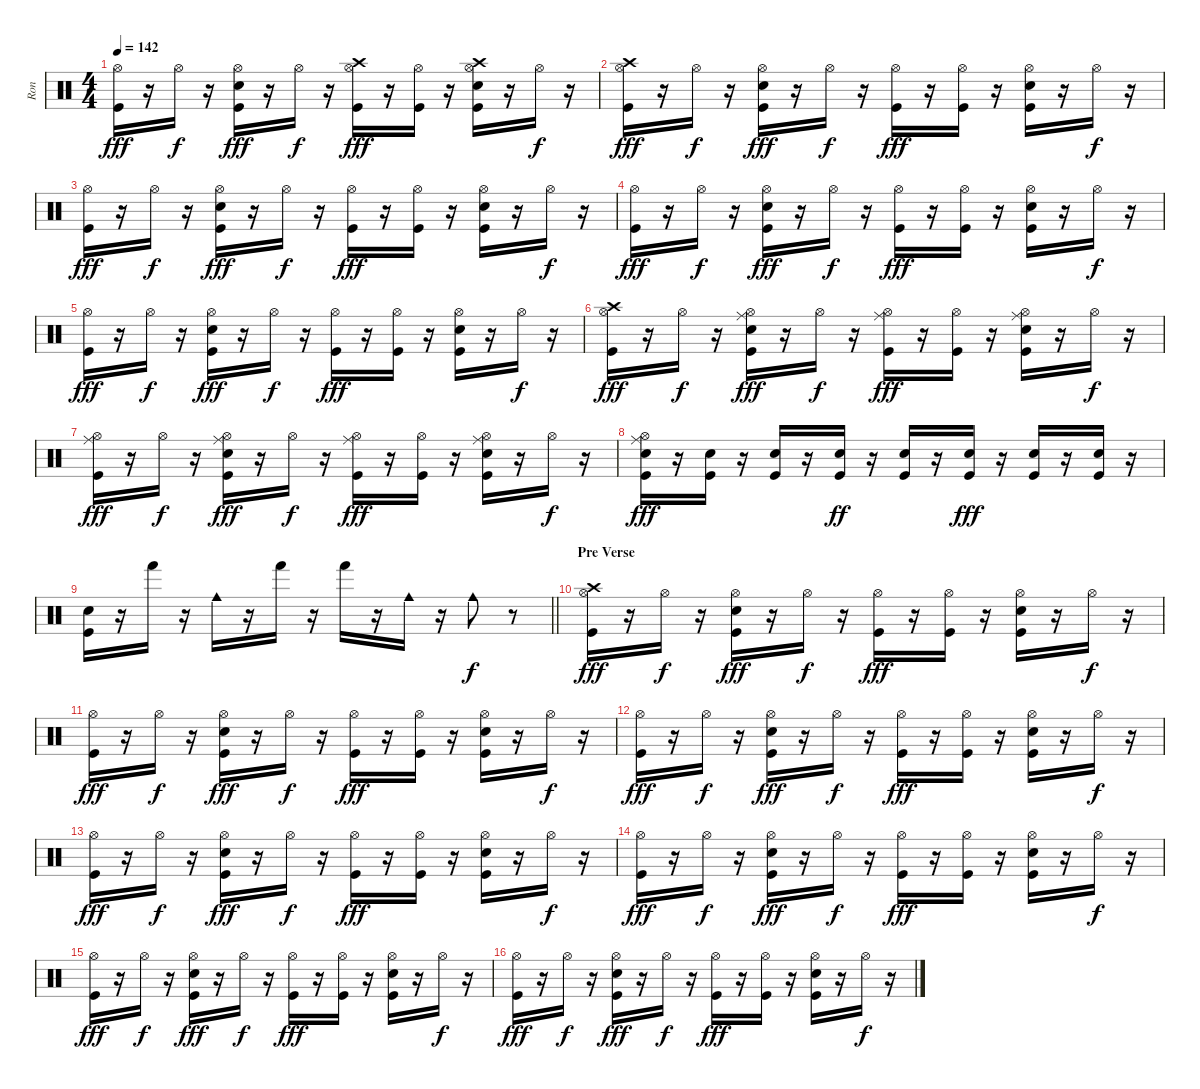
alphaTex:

\track ("Ron" "Ron") {instrument percussion}
\staff {score}
\articulation defaults
\ts (4 4)
\tempo 142
\clef neutral
\ks c
("Hi-Hat (open)" "Kick (hit)").16{dy fff} r.16 "Hi-Hat (open)".16{dy f} r.16 ("Snare (hit) 2" "Kick (hit)" "Hi-Hat (open)").16{dy fff} r.16 "Hi-Hat (open)".16{dy f} r.16 ("Kick (hit)" "Hi-Hat (open)" "Crash high (hit)").16{dy fff} r.16 ("Kick (hit)" "Hi-Hat (open)").16 r.16 ("Kick (hit)" "Snare (hit) 2" "Hi-Hat (open)" "Crash high (hit)").16 r.16 "Hi-Hat (open)".16{dy f} r.16 |
("Hi-Hat (open)" "Kick (hit)" "Crash high (hit)").16{dy fff} r.16 "Hi-Hat (open)".16{dy f} r.16 ("Snare (hit) 2" "Kick (hit)" "Hi-Hat (open)").16{dy fff} r.16 "Hi-Hat (open)".16{dy f} r.16 ("Kick (hit)" "Hi-Hat (open)").16{dy fff} r.16 ("Kick (hit)" "Hi-Hat (open)").16 r.16 ("Kick (hit)" "Snare (hit) 2" "Hi-Hat (open)").16 r.16 "Hi-Hat (open)".16{dy f} r.16 |
("Hi-Hat (open)" "Kick (hit)").16{dy fff} r.16 "Hi-Hat (open)".16{dy f} r.16 ("Snare (hit) 2" "Kick (hit)" "Hi-Hat (open)").16{dy fff} r.16 "Hi-Hat (open)".16{dy f} r.16 ("Kick (hit)" "Hi-Hat (open)").16{dy fff} r.16 ("Kick (hit)" "Hi-Hat (open)").16 r.16 ("Kick (hit)" "Snare (hit) 2" "Hi-Hat (open)").16 r.16 "Hi-Hat (open)".16{dy f} r.16 |
("Hi-Hat (open)" "Kick (hit)").16{dy fff} r.16 "Hi-Hat (open)".16{dy f} r.16 ("Snare (hit) 2" "Kick (hit)" "Hi-Hat (open)").16{dy fff} r.16 "Hi-Hat (open)".16{dy f} r.16 ("Kick (hit)" "Hi-Hat (open)").16{dy fff} r.16 ("Kick (hit)" "Hi-Hat (open)").16 r.16 ("Kick (hit)" "Snare (hit) 2" "Hi-Hat (open)").16 r.16 "Hi-Hat (open)".16{dy f} r.16 |
("Hi-Hat (open)" "Kick (hit)").16{dy fff} r.16 "Hi-Hat (open)".16{dy f} r.16 ("Snare (hit) 2" "Kick (hit)" "Hi-Hat (open)").16{dy fff} r.16 "Hi-Hat (open)".16{dy f} r.16 ("Kick (hit)" "Hi-Hat (open)").16{dy fff} r.16 ("Kick (hit)" "Hi-Hat (open)").16 r.16 ("Kick (hit)" "Snare (hit) 2" "Hi-Hat (open)").16 r.16 "Hi-Hat (open)".16{dy f} r.16 |
("Hi-Hat (open)" "Kick (hit)" "Crash high (hit)").16{dy fff} r.16 "Hi-Hat (open)".16{dy f} r.16 ("Snare (hit) 2" "Kick (hit)" "Hi-Hat (open)" "Ride (middle)").16{dy fff} r.16 "Hi-Hat (open)".16{dy f} r.16 ("Kick (hit)" "Hi-Hat (open)" "Ride (middle)").16{dy fff} r.16 ("Kick (hit)" "Hi-Hat (open)").16 r.16 ("Kick (hit)" "Snare (hit) 2" "Hi-Hat (open)" "Ride (middle)").16 r.16 "Hi-Hat (open)".16{dy f} r.16 |
("Hi-Hat (open)" "Kick (hit)" "Ride (middle)").16{dy fff} r.16 "Hi-Hat (open)".16{dy f} r.16 ("Snare (hit) 2" "Kick (hit)" "Hi-Hat (open)" "Ride (middle)").16{dy fff} r.16 "Hi-Hat (open)".16{dy f} r.16 ("Kick (hit)" "Hi-Hat (open)" "Ride (middle)").16{dy fff} r.16 ("Kick (hit)" "Hi-Hat (open)").16 r.16 ("Kick (hit)" "Snare (hit) 2" "Hi-Hat (open)" "Ride (middle)").16 r.16 "Hi-Hat (open)".16{dy f} r.16 |
("Hi-Hat (open)" "Kick (hit)" "Snare (hit) 2" "Ride (middle)").16{dy fff} r.16 ("Kick (hit)" "Snare (hit) 2").16 r.16 ("Kick (hit)" "Snare (hit) 2").16 r.16 ("Kick (hit)" "Snare (hit) 2").16{dy ff} r.16 ("Kick (hit)" "Snare (hit) 2").16 r.16 ("Kick (hit)" "Snare (hit) 2").16{dy fff} r.16 ("Kick (hit)" "Snare (hit) 2").16 r.16 ("Kick (hit)" "Snare (hit) 2").16 r.16 |
\barLineRight lightlight
("Kick (hit)" "Snare (hit) 2").16 r.16 "Hand (hit)".16 r.16 "Cowbell medium (hit)".16 r.16 "Hand (hit)".16 r.16 "Hand (hit)".16 r.16 "Cowbell medium (hit)".16 r.16 "Cowbell medium (hit)".8{dy f} r.8 |
\section ("" "Pre Verse ")
("Kick (hit)" "Hi-Hat (open)" "Crash high (hit)").16{dy fff} r.16 "Hi-Hat (open)".16{dy f} r.16 ("Snare (hit) 2" "Kick (hit)" "Hi-Hat (open)").16{dy fff} r.16 "Hi-Hat (open)".16{dy f} r.16 ("Kick (hit)" "Hi-Hat (open)").16{dy fff} r.16 ("Kick (hit)" "Hi-Hat (open)").16 r.16 ("Kick (hit)" "Snare (hit) 2" "Hi-Hat (open)").16 r.16 "Hi-Hat (open)".16{dy f} r.16 |
("Kick (hit)" "Hi-Hat (open)").16{dy fff} r.16 "Hi-Hat (open)".16{dy f} r.16 ("Snare (hit) 2" "Kick (hit)" "Hi-Hat (open)").16{dy fff} r.16 "Hi-Hat (open)".16{dy f} r.16 ("Kick (hit)" "Hi-Hat (open)").16{dy fff} r.16 ("Kick (hit)" "Hi-Hat (open)").16 r.16 ("Kick (hit)" "Snare (hit) 2" "Hi-Hat (open)").16 r.16 "Hi-Hat (open)".16{dy f} r.16 |
("Kick (hit)" "Hi-Hat (open)").16{dy fff} r.16 "Hi-Hat (open)".16{dy f} r.16 ("Snare (hit) 2" "Kick (hit)" "Hi-Hat (open)").16{dy fff} r.16 "Hi-Hat (open)".16{dy f} r.16 ("Kick (hit)" "Hi-Hat (open)").16{dy fff} r.16 ("Kick (hit)" "Hi-Hat (open)").16 r.16 ("Kick (hit)" "Snare (hit) 2" "Hi-Hat (open)").16 r.16 "Hi-Hat (open)".16{dy f} r.16 |
("Kick (hit)" "Hi-Hat (open)").16{dy fff} r.16 "Hi-Hat (open)".16{dy f} r.16 ("Snare (hit) 2" "Kick (hit)" "Hi-Hat (open)").16{dy fff} r.16 "Hi-Hat (open)".16{dy f} r.16 ("Kick (hit)" "Hi-Hat (open)").16{dy fff} r.16 ("Kick (hit)" "Hi-Hat (open)").16 r.16 ("Kick (hit)" "Snare (hit) 2" "Hi-Hat (open)").16 r.16 "Hi-Hat (open)".16{dy f} r.16 |
("Kick (hit)" "Hi-Hat (open)").16{dy fff} r.16 "Hi-Hat (open)".16{dy f} r.16 ("Snare (hit) 2" "Kick (hit)" "Hi-Hat (open)").16{dy fff} r.16 "Hi-Hat (open)".16{dy f} r.16 ("Kick (hit)" "Hi-Hat (open)").16{dy fff} r.16 ("Kick (hit)" "Hi-Hat (open)").16 r.16 ("Kick (hit)" "Snare (hit) 2" "Hi-Hat (open)").16 r.16 "Hi-Hat (open)".16{dy f} r.16 |
("Kick (hit)" "Hi-Hat (open)").16{dy fff} r.16 "Hi-Hat (open)".16{dy f} r.16 ("Snare (hit) 2" "Kick (hit)" "Hi-Hat (open)").16{dy fff} r.16 "Hi-Hat (open)".16{dy f} r.16 ("Kick (hit)" "Hi-Hat (open)").16{dy fff} r.16 ("Kick (hit)" "Hi-Hat (open)").16 r.16 ("Kick (hit)" "Snare (hit) 2" "Hi-Hat (open)").16 r.16 "Hi-Hat (open)".16{dy f} r.16 |
("Kick (hit)" "Hi-Hat (open)").16{dy fff} r.16 "Hi-Hat (open)".16{dy f} r.16 ("Snare (hit) 2" "Kick (hit)" "Hi-Hat (open)").16{dy fff} r.16 "Hi-Hat (open)".16{dy f} r.16 ("Kick (hit)" "Hi-Hat (open)").16{dy fff} r.16 ("Kick (hit)" "Hi-Hat (open)").16 r.16 ("Kick (hit)" "Snare (hit) 2" "Hi-Hat (open)").16 r.16 "Hi-Hat (open)".16{dy f} r.16
